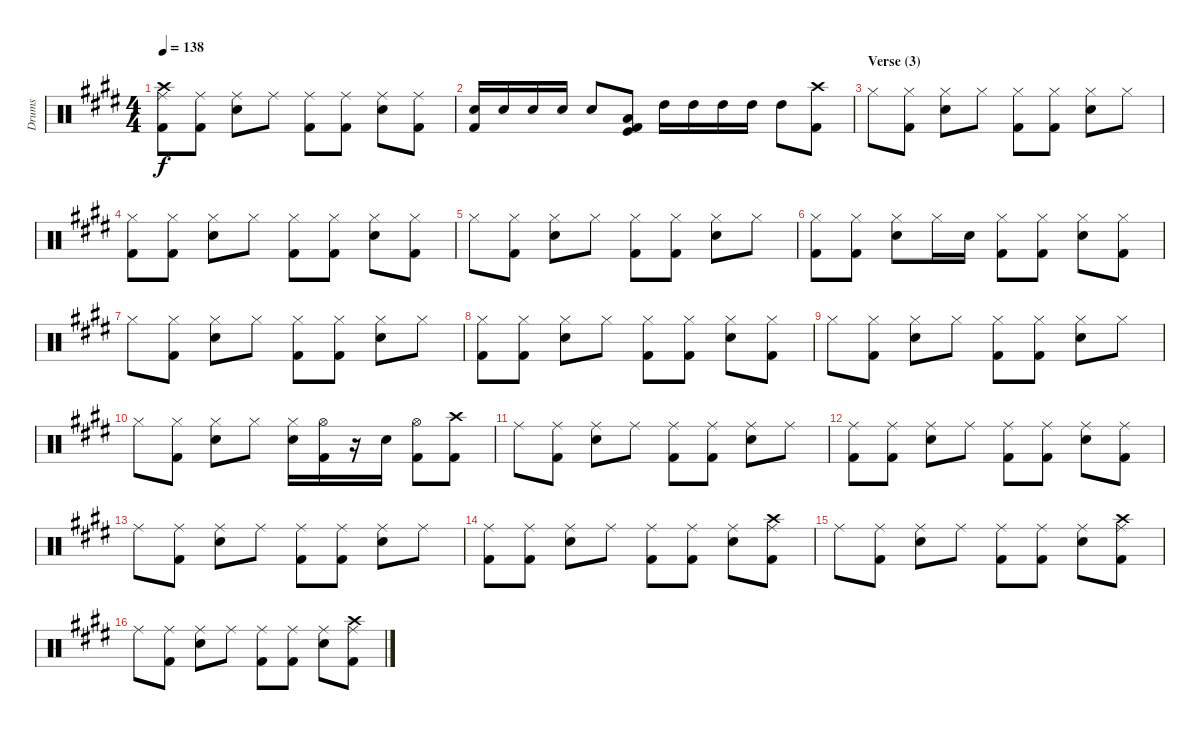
\track ("Drums" "Drums") {instrument percussion}
\staff {score}
\articulation defaults
\ts (4 4)
\tempo 138
\clef neutral
\ks e
("Crash high (hit)" "Kick (hit) 2" "Ride (middle)").8{dy f} ("Kick (hit) 2" "Ride (middle)").8 ("Snare (hit) 2" "Ride (middle)").8 "Ride (middle)".8 ("Kick (hit) 2" "Ride (middle)").8 ("Kick (hit) 2" "Ride (middle)").8 ("Snare (hit) 2" "Ride (middle)").8 ("Kick (hit) 2" "Ride (middle)").8 |
("Kick (hit) 2" "Snare (hit) 2").16 "Snare (hit) 2".16 "Snare (hit) 2".16 "Snare (hit) 2".16 "Snare (hit) 2".8 ("Kick (hit)" "Kick (hit) 2" "Low Floor Tom (hit)").8 "High Tom (hit)".16 "High Tom (hit)".16 "High Tom (hit)".16 "High Tom (hit)".16 "High Tom (hit)".8 ("Crash high (hit)" "Kick (hit) 2").8 |
\section ("" "Verse (3)")
"Hi-Hat (closed)".8 ("Kick (hit) 2" "Hi-Hat (closed)").8 ("Snare (hit) 2" "Hi-Hat (closed)").8 "Hi-Hat (closed)".8 ("Kick (hit) 2" "Hi-Hat (closed)").8 ("Kick (hit) 2" "Hi-Hat (closed)").8 ("Snare (hit) 2" "Hi-Hat (closed)").8 "Hi-Hat (closed)".8 |
("Kick (hit) 2" "Hi-Hat (closed)").8 ("Kick (hit) 2" "Hi-Hat (closed)").8 ("Snare (hit) 2" "Hi-Hat (closed)").8 "Hi-Hat (closed)".8 ("Kick (hit) 2" "Hi-Hat (closed)").8 ("Kick (hit) 2" "Hi-Hat (closed)").8 ("Snare (hit) 2" "Hi-Hat (closed)").8 ("Kick (hit) 2" "Hi-Hat (closed)").8 |
"Hi-Hat (closed)".8 ("Kick (hit) 2" "Hi-Hat (closed)").8 ("Snare (hit) 2" "Hi-Hat (closed)").8 "Hi-Hat (closed)".8 ("Kick (hit) 2" "Hi-Hat (closed)").8 ("Kick (hit) 2" "Hi-Hat (closed)").8 ("Snare (hit) 2" "Hi-Hat (closed)").8 "Hi-Hat (closed)".8 |
("Kick (hit) 2" "Hi-Hat (closed)").8 ("Kick (hit) 2" "Hi-Hat (closed)").8 ("Snare (hit) 2" "Hi-Hat (closed)").8 "Hi-Hat (closed)".16 "Snare (hit) 2".16 ("Kick (hit) 2" "Hi-Hat (closed)").8 ("Kick (hit) 2" "Hi-Hat (closed)").8 ("Snare (hit) 2" "Hi-Hat (closed)").8 ("Kick (hit) 2" "Hi-Hat (closed)").8 |
"Hi-Hat (closed)".8 ("Kick (hit) 2" "Hi-Hat (closed)").8 ("Snare (hit) 2" "Hi-Hat (closed)").8 "Hi-Hat (closed)".8 ("Kick (hit) 2" "Hi-Hat (closed)").8 ("Kick (hit) 2" "Hi-Hat (closed)").8 ("Snare (hit) 2" "Hi-Hat (closed)").8 "Hi-Hat (closed)".8 |
("Kick (hit) 2" "Hi-Hat (closed)").8 ("Kick (hit) 2" "Hi-Hat (closed)").8 ("Snare (hit) 2" "Hi-Hat (closed)").8 "Hi-Hat (closed)".8 ("Kick (hit) 2" "Hi-Hat (closed)").8 ("Kick (hit) 2" "Hi-Hat (closed)").8 ("Snare (hit) 2" "Hi-Hat (closed)").8 ("Kick (hit) 2" "Hi-Hat (closed)").8 |
"Hi-Hat (closed)".8 ("Kick (hit) 2" "Hi-Hat (closed)").8 ("Snare (hit) 2" "Hi-Hat (closed)").8 "Hi-Hat (closed)".8 ("Kick (hit) 2" "Hi-Hat (closed)").8 ("Kick (hit) 2" "Hi-Hat (closed)").8 ("Snare (hit) 2" "Hi-Hat (closed)").8 "Hi-Hat (closed)".8 |
"Hi-Hat (closed)".8 ("Kick (hit) 2" "Hi-Hat (closed)").8 ("Snare (hit) 2" "Hi-Hat (closed)").8 "Hi-Hat (closed)".8 ("Snare (hit) 2" "Hi-Hat (closed)").16 ("Hi-Hat (open)" "Kick (hit) 2").16 r.16 "Snare (hit) 2".16 ("Hi-Hat (open)" "Kick (hit) 2").8 ("Crash high (hit)" "Kick (hit) 2").8 |
"Ride (middle)".8 ("Kick (hit) 2" "Ride (middle)").8 ("Snare (hit) 2" "Ride (middle)").8 "Ride (middle)".8 ("Kick (hit) 2" "Ride (middle)").8 ("Kick (hit) 2" "Ride (middle)").8 ("Snare (hit) 2" "Ride (middle)").8 "Ride (middle)".8 |
("Kick (hit) 2" "Ride (middle)").8 ("Kick (hit) 2" "Ride (middle)").8 ("Snare (hit) 2" "Ride (middle)").8 "Ride (middle)".8 ("Kick (hit) 2" "Ride (middle)").8 ("Kick (hit) 2" "Ride (middle)").8 ("Snare (hit) 2" "Ride (middle)").8 ("Kick (hit) 2" "Ride (middle)").8 |
"Ride (middle)".8 ("Kick (hit) 2" "Ride (middle)").8 ("Snare (hit) 2" "Ride (middle)").8 "Ride (middle)".8 ("Kick (hit) 2" "Ride (middle)").8 ("Kick (hit) 2" "Ride (middle)").8 ("Snare (hit) 2" "Ride (middle)").8 "Ride (middle)".8 |
("Kick (hit) 2" "Ride (middle)").8 ("Kick (hit) 2" "Ride (middle)").8 ("Snare (hit) 2" "Ride (middle)").8 "Ride (middle)".8 ("Kick (hit) 2" "Ride (middle)").8 ("Kick (hit) 2" "Ride (middle)").8 ("Snare (hit) 2" "Ride (middle)").8 ("Crash high (hit)" "Kick (hit) 2" "Ride (middle)").8 |
"Ride (middle)".8 ("Kick (hit) 2" "Ride (middle)").8 ("Snare (hit) 2" "Ride (middle)").8 "Ride (middle)".8 ("Kick (hit) 2" "Ride (middle)").8 ("Kick (hit) 2" "Ride (middle)").8 ("Snare (hit) 2" "Ride (middle)").8 ("Crash high (hit)" "Kick (hit) 2" "Ride (middle)").8 |
"Ride (middle)".8 ("Kick (hit) 2" "Ride (middle)").8 ("Snare (hit) 2" "Ride (middle)").8 "Ride (middle)".8 ("Kick (hit) 2" "Ride (middle)").8 ("Kick (hit) 2" "Ride (middle)").8 ("Snare (hit) 2" "Ride (middle)").8 ("Crash high (hit)" "Kick (hit) 2" "Ride (middle)").8
